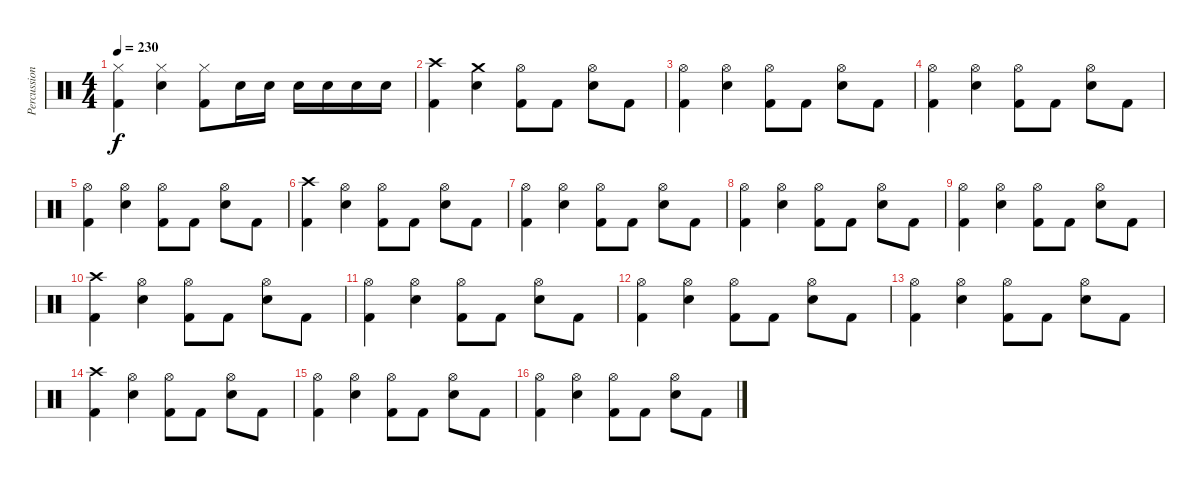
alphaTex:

\track ("Percussion" "Percussion") {instrument percussion}
\staff {score}
\articulation defaults
\ts (4 4)
\tempo 230
\clef neutral
\ks c
("Hi-Hat (closed)" "Kick (hit) 2").4{dy f} ("Hi-Hat (closed)" "Electric Snare (hit)").4 ("Hi-Hat (closed)" "Kick (hit) 2").8 "Electric Snare (hit)".16 "Electric Snare (hit)".16 "Electric Snare (hit)".16 "Electric Snare (hit)".16 "Electric Snare (hit)".16 "Electric Snare (hit)".16 |
("Crash high (hit)" "Kick (hit) 2").4 ("Crash medium (hit)" "Electric Snare (hit)").4 ("Hi-Hat (open)" "Kick (hit) 2").8 "Kick (hit) 2".8 ("Hi-Hat (open)" "Electric Snare (hit)").8 "Kick (hit) 2".8 |
("Hi-Hat (open)" "Kick (hit) 2").4 ("Hi-Hat (open)" "Electric Snare (hit)").4 ("Hi-Hat (open)" "Kick (hit) 2").8 "Kick (hit) 2".8 ("Hi-Hat (open)" "Electric Snare (hit)").8 "Kick (hit) 2".8 |
("Hi-Hat (open)" "Kick (hit) 2").4 ("Hi-Hat (open)" "Electric Snare (hit)").4 ("Hi-Hat (open)" "Kick (hit) 2").8 "Kick (hit) 2".8 ("Hi-Hat (open)" "Electric Snare (hit)").8 "Kick (hit) 2".8 |
("Hi-Hat (open)" "Kick (hit) 2").4 ("Hi-Hat (open)" "Electric Snare (hit)").4 ("Hi-Hat (open)" "Kick (hit) 2").8 "Kick (hit) 2".8 ("Hi-Hat (open)" "Electric Snare (hit)").8 "Kick (hit) 2".8 |
("Crash high (hit)" "Kick (hit) 2").4 ("Hi-Hat (open)" "Electric Snare (hit)").4 ("Hi-Hat (open)" "Kick (hit) 2").8 "Kick (hit) 2".8 ("Hi-Hat (open)" "Electric Snare (hit)").8 "Kick (hit) 2".8 |
("Hi-Hat (open)" "Kick (hit) 2").4 ("Hi-Hat (open)" "Electric Snare (hit)").4 ("Hi-Hat (open)" "Kick (hit) 2").8 "Kick (hit) 2".8 ("Hi-Hat (open)" "Electric Snare (hit)").8 "Kick (hit) 2".8 |
("Hi-Hat (open)" "Kick (hit) 2").4 ("Hi-Hat (open)" "Electric Snare (hit)").4 ("Hi-Hat (open)" "Kick (hit) 2").8 "Kick (hit) 2".8 ("Hi-Hat (open)" "Electric Snare (hit)").8 "Kick (hit) 2".8 |
("Hi-Hat (open)" "Kick (hit) 2").4 ("Hi-Hat (open)" "Electric Snare (hit)").4 ("Hi-Hat (open)" "Kick (hit) 2").8 "Kick (hit) 2".8 ("Hi-Hat (open)" "Electric Snare (hit)").8 "Kick (hit) 2".8 |
("Crash high (hit)" "Kick (hit) 2").4 ("Hi-Hat (open)" "Electric Snare (hit)").4 ("Hi-Hat (open)" "Kick (hit) 2").8 "Kick (hit) 2".8 ("Hi-Hat (open)" "Electric Snare (hit)").8 "Kick (hit) 2".8 |
("Hi-Hat (open)" "Kick (hit) 2").4 ("Hi-Hat (open)" "Electric Snare (hit)").4 ("Hi-Hat (open)" "Kick (hit) 2").8 "Kick (hit) 2".8 ("Hi-Hat (open)" "Electric Snare (hit)").8 "Kick (hit) 2".8 |
("Hi-Hat (open)" "Kick (hit) 2").4 ("Hi-Hat (open)" "Electric Snare (hit)").4 ("Hi-Hat (open)" "Kick (hit) 2").8 "Kick (hit) 2".8 ("Hi-Hat (open)" "Electric Snare (hit)").8 "Kick (hit) 2".8 |
("Hi-Hat (open)" "Kick (hit) 2").4 ("Hi-Hat (open)" "Electric Snare (hit)").4 ("Hi-Hat (open)" "Kick (hit) 2").8 "Kick (hit) 2".8 ("Hi-Hat (open)" "Electric Snare (hit)").8 "Kick (hit) 2".8 |
("Crash high (hit)" "Kick (hit) 2").4 ("Hi-Hat (open)" "Electric Snare (hit)").4 ("Hi-Hat (open)" "Kick (hit) 2").8 "Kick (hit) 2".8 ("Hi-Hat (open)" "Electric Snare (hit)").8 "Kick (hit) 2".8 |
("Hi-Hat (open)" "Kick (hit) 2").4 ("Hi-Hat (open)" "Electric Snare (hit)").4 ("Hi-Hat (open)" "Kick (hit) 2").8 "Kick (hit) 2".8 ("Hi-Hat (open)" "Electric Snare (hit)").8 "Kick (hit) 2".8 |
("Hi-Hat (open)" "Kick (hit) 2").4 ("Hi-Hat (open)" "Electric Snare (hit)").4 ("Hi-Hat (open)" "Kick (hit) 2").8 "Kick (hit) 2".8 ("Hi-Hat (open)" "Electric Snare (hit)").8 "Kick (hit) 2".8
